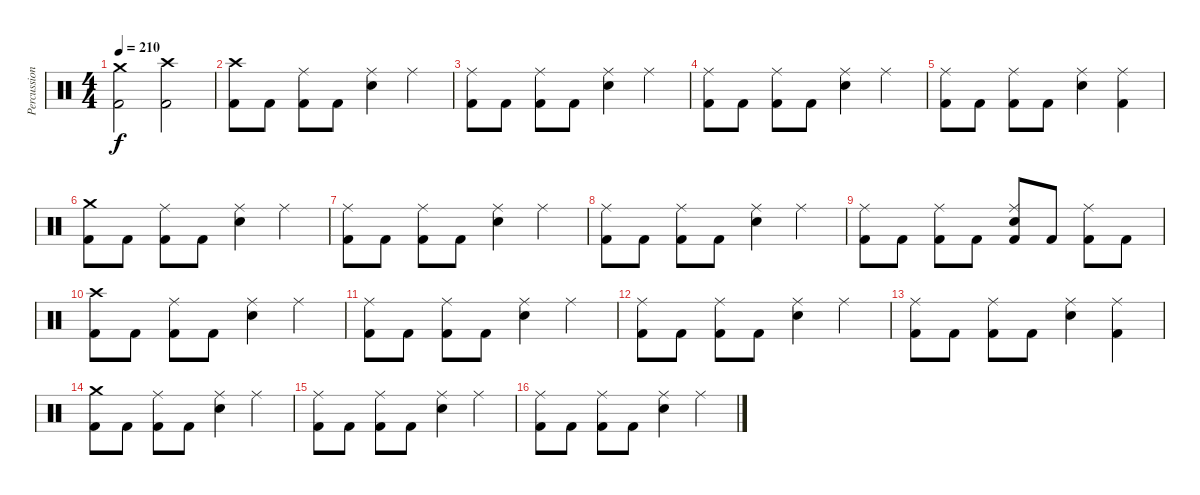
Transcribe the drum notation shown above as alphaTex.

\track ("Percussions" "Percussion") {instrument percussion}
\staff {score}
\articulation defaults
\ts (4 4)
\tempo 210
\clef neutral
\ks c
("Kick (hit) 2" "Crash medium (hit)").2{dy f} ("Kick (hit) 2" "Crash high (hit)").2 |
("Kick (hit) 2" "Crash high (hit)").8 "Kick (hit) 2".8 ("Kick (hit) 2" "Ride (middle)").8 "Kick (hit) 2".8 ("Electric Snare (hit)" "Ride (middle)").4 "Ride (middle)".4 |
("Kick (hit) 2" "Ride (middle)").8 "Kick (hit) 2".8 ("Kick (hit) 2" "Ride (middle)").8 "Kick (hit) 2".8 ("Electric Snare (hit)" "Ride (middle)").4 "Ride (middle)".4 |
("Kick (hit) 2" "Ride (middle)").8 "Kick (hit) 2".8 ("Kick (hit) 2" "Ride (middle)").8 "Kick (hit) 2".8 ("Electric Snare (hit)" "Ride (middle)").4 "Ride (middle)".4 |
("Kick (hit) 2" "Ride (middle)").8 "Kick (hit) 2".8 ("Kick (hit) 2" "Ride (middle)").8 "Kick (hit) 2".8 ("Electric Snare (hit)" "Ride (middle)").4 ("Kick (hit) 2" "Ride (middle)").4 |
("Kick (hit) 2" "Crash medium (hit)").8 "Kick (hit) 2".8 ("Kick (hit) 2" "Ride (middle)").8 "Kick (hit) 2".8 ("Electric Snare (hit)" "Ride (middle)").4 "Ride (middle)".4 |
("Kick (hit) 2" "Ride (middle)").8 "Kick (hit) 2".8 ("Kick (hit) 2" "Ride (middle)").8 "Kick (hit) 2".8 ("Electric Snare (hit)" "Ride (middle)").4 "Ride (middle)".4 |
("Kick (hit) 2" "Ride (middle)").8 "Kick (hit) 2".8 ("Kick (hit) 2" "Ride (middle)").8 "Kick (hit) 2".8 ("Electric Snare (hit)" "Ride (middle)").4 "Ride (middle)".4 |
("Kick (hit) 2" "Ride (middle)").8 "Kick (hit) 2".8 ("Kick (hit) 2" "Ride (middle)").8 "Kick (hit) 2".8 ("Kick (hit) 2" "Electric Snare (hit)" "Ride (middle)").8 "Kick (hit) 2".8 ("Kick (hit) 2" "Ride (middle)").8 "Kick (hit) 2".8 |
("Kick (hit) 2" "Crash high (hit)").8 "Kick (hit) 2".8 ("Kick (hit) 2" "Ride (middle)").8 "Kick (hit) 2".8 ("Electric Snare (hit)" "Ride (middle)").4 "Ride (middle)".4 |
("Kick (hit) 2" "Ride (middle)").8 "Kick (hit) 2".8 ("Kick (hit) 2" "Ride (middle)").8 "Kick (hit) 2".8 ("Electric Snare (hit)" "Ride (middle)").4 "Ride (middle)".4 |
("Kick (hit) 2" "Ride (middle)").8 "Kick (hit) 2".8 ("Kick (hit) 2" "Ride (middle)").8 "Kick (hit) 2".8 ("Electric Snare (hit)" "Ride (middle)").4 "Ride (middle)".4 |
("Kick (hit) 2" "Ride (middle)").8 "Kick (hit) 2".8 ("Kick (hit) 2" "Ride (middle)").8 "Kick (hit) 2".8 ("Electric Snare (hit)" "Ride (middle)").4 ("Kick (hit) 2" "Ride (middle)").4 |
("Kick (hit) 2" "Crash medium (hit)").8 "Kick (hit) 2".8 ("Kick (hit) 2" "Ride (middle)").8 "Kick (hit) 2".8 ("Electric Snare (hit)" "Ride (middle)").4 "Ride (middle)".4 |
("Kick (hit) 2" "Ride (middle)").8 "Kick (hit) 2".8 ("Kick (hit) 2" "Ride (middle)").8 "Kick (hit) 2".8 ("Electric Snare (hit)" "Ride (middle)").4 "Ride (middle)".4 |
("Kick (hit) 2" "Ride (middle)").8 "Kick (hit) 2".8 ("Kick (hit) 2" "Ride (middle)").8 "Kick (hit) 2".8 ("Electric Snare (hit)" "Ride (middle)").4 "Ride (middle)".4
